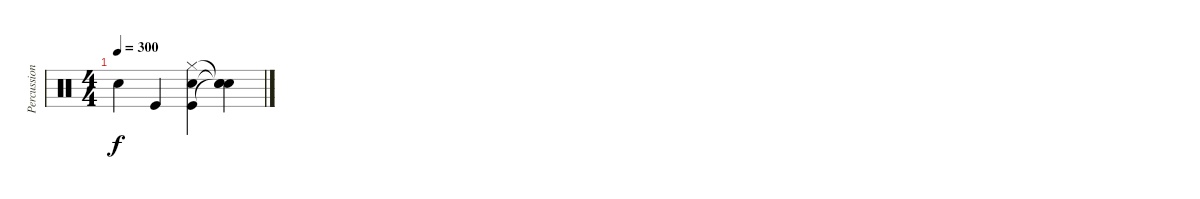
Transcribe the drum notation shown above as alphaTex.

\track ("Percussion" "Percussion") {instrument percussion}
\staff {score}
\articulation defaults
\ts (4 4)
\tempo 300
\clef neutral
\ks c "Electric Snare (hit)".4{dy f} "Kick (hit)".4
("Kick (hit)" "Hi-Hat (closed)" "Electric Snare (hit)").4 ("Snare (hit)"{t} "Snare (hit)"{t} "Snare (hit)"{t}).4
